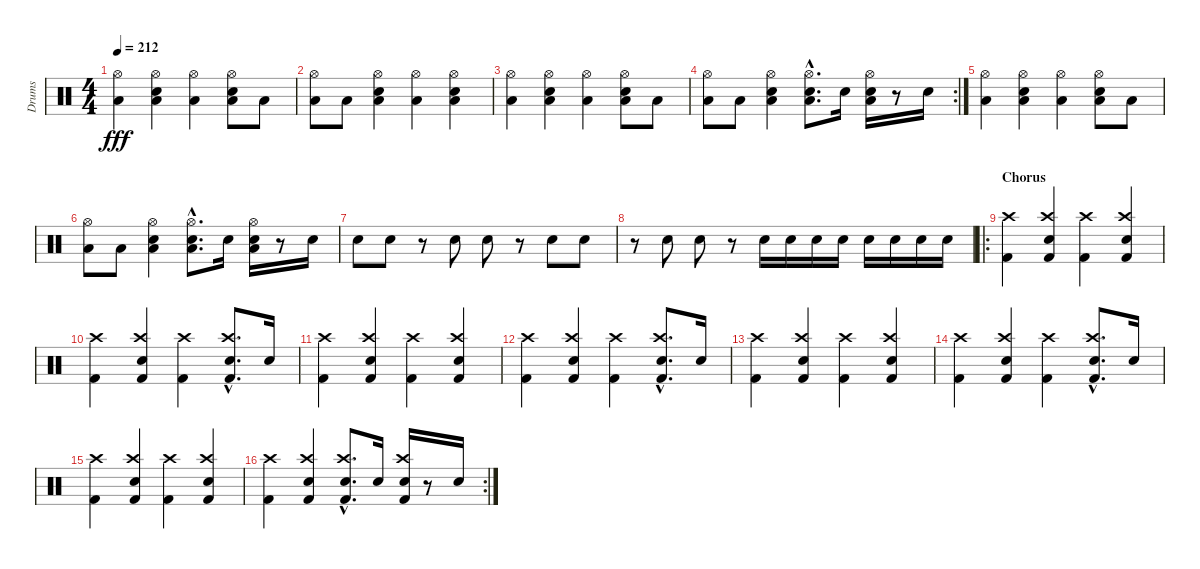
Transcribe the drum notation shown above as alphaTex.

\track ("Drums" "Drums") {instrument percussion}
\staff {score}
\articulation defaults
\ts (4 4)
\tempo 212
\clef neutral
\ks c
("Low Floor Tom (hit)" "Hi-Hat (open)").4{dy fff} ("Low Floor Tom (hit)" "Hi-Hat (open)" "Electric Snare (hit)").4 ("Low Tom (hit)" "Hi-Hat (open)").4 ("Low Floor Tom (hit)" "Hi-Hat (open)" "Electric Snare (hit)").8 "Low Tom (hit)".8 |
("Low Floor Tom (hit)" "Hi-Hat (open)").8 "Low Tom (hit)".8 ("Low Floor Tom (hit)" "Hi-Hat (open)" "Electric Snare (hit)").4 ("Low Tom (hit)" "Hi-Hat (open)").4 ("Low Floor Tom (hit)" "Hi-Hat (open)" "Electric Snare (hit)").4 |
("Low Floor Tom (hit)" "Hi-Hat (open)").4 ("Low Floor Tom (hit)" "Hi-Hat (open)" "Electric Snare (hit)").4 ("Low Tom (hit)" "Hi-Hat (open)").4 ("Low Floor Tom (hit)" "Hi-Hat (open)" "Electric Snare (hit)").8 "Low Tom (hit)".8 |
\rc 2
("Low Floor Tom (hit)" "Hi-Hat (open)").8 "Low Tom (hit)".8 ("Low Floor Tom (hit)" "Hi-Hat (open)" "Electric Snare (hit)").4 ("Low Tom (hit)"{hac} "Hi-Hat (open)"{hac} "Electric Snare (hit)"{hac}).8{d} "Electric Snare (hit)".16 ("Low Floor Tom (hit)" "Hi-Hat (open)" "Electric Snare (hit)").16 r.8 "Electric Snare (hit)".16 |
("Low Floor Tom (hit)" "Hi-Hat (open)").4 ("Low Floor Tom (hit)" "Hi-Hat (open)" "Electric Snare (hit)").4 ("Low Tom (hit)" "Hi-Hat (open)").4 ("Low Floor Tom (hit)" "Hi-Hat (open)" "Electric Snare (hit)").8 "Low Tom (hit)".8 |
("Low Floor Tom (hit)" "Hi-Hat (open)").8 "Low Tom (hit)".8 ("Low Floor Tom (hit)" "Hi-Hat (open)" "Electric Snare (hit)").4 ("Low Tom (hit)"{hac} "Hi-Hat (open)"{hac} "Electric Snare (hit)"{hac}).8{d} "Electric Snare (hit)".16 ("Low Floor Tom (hit)" "Hi-Hat (open)" "Electric Snare (hit)").16 r.8 "Electric Snare (hit)".16 |
"Electric Snare (hit)".8 "Electric Snare (hit)".8 r.8 "Electric Snare (hit)".8 "Electric Snare (hit)".8 r.8 "Electric Snare (hit)".8 "Electric Snare (hit)".8 |
r.8 "Electric Snare (hit)".8 "Electric Snare (hit)".8 r.8 "Electric Snare (hit)".16 "Electric Snare (hit)".16 "Electric Snare (hit)".16 "Electric Snare (hit)".16 "Electric Snare (hit)".16 "Electric Snare (hit)".16 "Electric Snare (hit)".16 "Electric Snare (hit)".16 |
\ro
\section ("" "Chorus")
("Crash high (hit)" "Kick (hit) 2").4 ("Crash high (hit)" "Electric Snare (hit)" "Kick (hit) 2").4 ("Crash high (hit)" "Kick (hit) 2").4 ("Crash high (hit)" "Electric Snare (hit)" "Kick (hit) 2").4 |
("Crash high (hit)" "Kick (hit) 2").4 ("Crash high (hit)" "Electric Snare (hit)" "Kick (hit) 2").4 ("Crash high (hit)" "Kick (hit) 2").4 ("Crash high (hit)"{hac} "Electric Snare (hit)"{hac} "Kick (hit) 2"{hac}).8{d} "Electric Snare (hit)".16 |
("Crash high (hit)" "Kick (hit) 2").4 ("Crash high (hit)" "Electric Snare (hit)" "Kick (hit) 2").4 ("Crash high (hit)" "Kick (hit) 2").4 ("Crash high (hit)" "Electric Snare (hit)" "Kick (hit) 2").4 |
("Crash high (hit)" "Kick (hit) 2").4 ("Crash high (hit)" "Electric Snare (hit)" "Kick (hit) 2").4 ("Crash high (hit)" "Kick (hit) 2").4 ("Crash high (hit)"{hac} "Electric Snare (hit)"{hac} "Kick (hit) 2"{hac}).8{d} "Electric Snare (hit)".16 |
("Crash high (hit)" "Kick (hit) 2").4 ("Crash high (hit)" "Electric Snare (hit)" "Kick (hit) 2").4 ("Crash high (hit)" "Kick (hit) 2").4 ("Crash high (hit)" "Electric Snare (hit)" "Kick (hit) 2").4 |
("Crash high (hit)" "Kick (hit) 2").4 ("Crash high (hit)" "Electric Snare (hit)" "Kick (hit) 2").4 ("Crash high (hit)" "Kick (hit) 2").4 ("Crash high (hit)"{hac} "Electric Snare (hit)"{hac} "Kick (hit) 2"{hac}).8{d} "Electric Snare (hit)".16 |
("Crash high (hit)" "Kick (hit) 2").4 ("Crash high (hit)" "Electric Snare (hit)" "Kick (hit) 2").4 ("Crash high (hit)" "Kick (hit) 2").4 ("Crash high (hit)" "Electric Snare (hit)" "Kick (hit) 2").4 |
\rc 2
("Crash high (hit)" "Kick (hit) 2").4 ("Crash high (hit)" "Electric Snare (hit)" "Kick (hit) 2").4 ("Crash high (hit)"{hac} "Electric Snare (hit)"{hac} "Kick (hit) 2"{hac}).8{d} "Electric Snare (hit)".16 ("Crash high (hit)" "Electric Snare (hit)" "Kick (hit) 2").16 r.8 "Electric Snare (hit)".16
